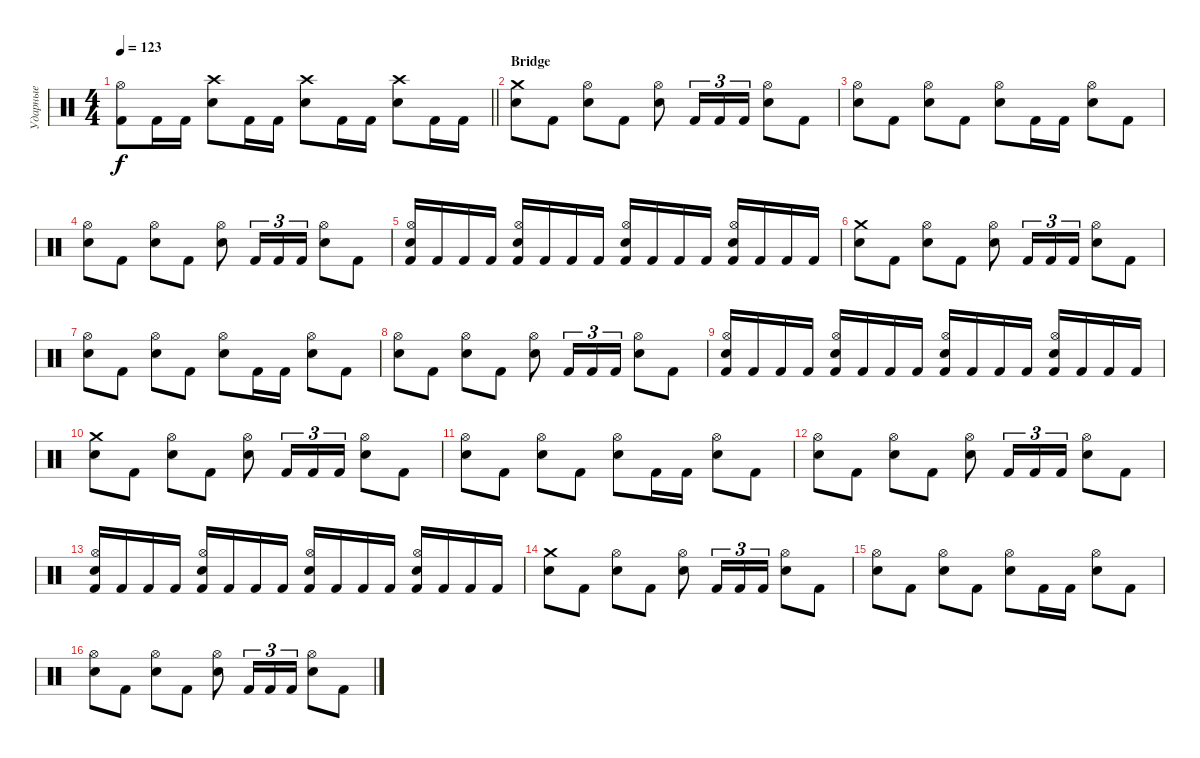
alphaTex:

\track ("Ударные" "Ударные") {instrument percussion}
\staff {score}
\articulation defaults
\ts (4 4)
\tempo 123
\clef neutral
\barLineRight lightlight
\ks c
("Kick (hit) 2" "Hi-Hat (open)").8{dy f} "Kick (hit) 2".16 "Kick (hit) 2".16 ("Crash high (hit)" "Snare (hit) 2").8 "Kick (hit) 2".16 "Kick (hit) 2".16 ("Crash high (hit)" "Snare (hit) 2").8 "Kick (hit) 2".16 "Kick (hit) 2".16 ("Crash high (hit)" "Snare (hit) 2").8 "Kick (hit) 2".16 "Kick (hit) 2".16 |
\section ("" "Bridge")
("Crash medium (hit)" "Snare (hit) 2").8 "Kick (hit) 2".8 ("Snare (hit) 2" "Hi-Hat (open)").8 "Kick (hit) 2".8 ("Snare (hit) 2" "Hi-Hat (open)").8 "Kick (hit) 2".16{tu (3 2)} "Kick (hit) 2".16{tu (3 2)} "Kick (hit) 2".16{tu (3 2)} ("Snare (hit) 2" "Hi-Hat (open)").8 "Kick (hit) 2".8 |
("Snare (hit) 2" "Hi-Hat (open)").8 "Kick (hit) 2".8 ("Snare (hit) 2" "Hi-Hat (open)").8 "Kick (hit) 2".8 ("Snare (hit) 2" "Hi-Hat (open)").8 "Kick (hit) 2".16 "Kick (hit) 2".16 ("Snare (hit) 2" "Hi-Hat (open)").8 "Kick (hit) 2".8 |
("Snare (hit) 2" "Hi-Hat (open)").8 "Kick (hit) 2".8 ("Snare (hit) 2" "Hi-Hat (open)").8 "Kick (hit) 2".8 ("Snare (hit) 2" "Hi-Hat (open)").8 "Kick (hit) 2".16{tu (3 2)} "Kick (hit) 2".16{tu (3 2)} "Kick (hit) 2".16{tu (3 2)} ("Snare (hit) 2" "Hi-Hat (open)").8 "Kick (hit) 2".8 |
("Snare (hit) 2" "Kick (hit) 2" "Hi-Hat (open)").16 "Kick (hit) 2".16 "Kick (hit) 2".16 "Kick (hit) 2".16 ("Snare (hit) 2" "Kick (hit) 2" "Hi-Hat (open)").16 "Kick (hit) 2".16 "Kick (hit) 2".16 "Kick (hit) 2".16 ("Snare (hit) 2" "Kick (hit) 2" "Hi-Hat (open)").16 "Kick (hit) 2".16 "Kick (hit) 2".16 "Kick (hit) 2".16 ("Snare (hit) 2" "Kick (hit) 2" "Hi-Hat (open)").16 "Kick (hit) 2".16 "Kick (hit) 2".16 "Kick (hit) 2".16 |
("Crash medium (hit)" "Snare (hit) 2").8 "Kick (hit) 2".8 ("Snare (hit) 2" "Hi-Hat (open)").8 "Kick (hit) 2".8 ("Snare (hit) 2" "Hi-Hat (open)").8 "Kick (hit) 2".16{tu (3 2)} "Kick (hit) 2".16{tu (3 2)} "Kick (hit) 2".16{tu (3 2)} ("Snare (hit) 2" "Hi-Hat (open)").8 "Kick (hit) 2".8 |
("Snare (hit) 2" "Hi-Hat (open)").8 "Kick (hit) 2".8 ("Snare (hit) 2" "Hi-Hat (open)").8 "Kick (hit) 2".8 ("Snare (hit) 2" "Hi-Hat (open)").8 "Kick (hit) 2".16 "Kick (hit) 2".16 ("Snare (hit) 2" "Hi-Hat (open)").8 "Kick (hit) 2".8 |
("Snare (hit) 2" "Hi-Hat (open)").8 "Kick (hit) 2".8 ("Snare (hit) 2" "Hi-Hat (open)").8 "Kick (hit) 2".8 ("Snare (hit) 2" "Hi-Hat (open)").8 "Kick (hit) 2".16{tu (3 2)} "Kick (hit) 2".16{tu (3 2)} "Kick (hit) 2".16{tu (3 2)} ("Snare (hit) 2" "Hi-Hat (open)").8 "Kick (hit) 2".8 |
("Snare (hit) 2" "Kick (hit) 2" "Hi-Hat (open)").16 "Kick (hit) 2".16 "Kick (hit) 2".16 "Kick (hit) 2".16 ("Snare (hit) 2" "Kick (hit) 2" "Hi-Hat (open)").16 "Kick (hit) 2".16 "Kick (hit) 2".16 "Kick (hit) 2".16 ("Snare (hit) 2" "Kick (hit) 2" "Hi-Hat (open)").16 "Kick (hit) 2".16 "Kick (hit) 2".16 "Kick (hit) 2".16 ("Snare (hit) 2" "Kick (hit) 2" "Hi-Hat (open)").16 "Kick (hit) 2".16 "Kick (hit) 2".16 "Kick (hit) 2".16 |
("Crash medium (hit)" "Snare (hit) 2").8 "Kick (hit) 2".8 ("Snare (hit) 2" "Hi-Hat (open)").8 "Kick (hit) 2".8 ("Snare (hit) 2" "Hi-Hat (open)").8 "Kick (hit) 2".16{tu (3 2)} "Kick (hit) 2".16{tu (3 2)} "Kick (hit) 2".16{tu (3 2)} ("Snare (hit) 2" "Hi-Hat (open)").8 "Kick (hit) 2".8 |
("Snare (hit) 2" "Hi-Hat (open)").8 "Kick (hit) 2".8 ("Snare (hit) 2" "Hi-Hat (open)").8 "Kick (hit) 2".8 ("Snare (hit) 2" "Hi-Hat (open)").8 "Kick (hit) 2".16 "Kick (hit) 2".16 ("Snare (hit) 2" "Hi-Hat (open)").8 "Kick (hit) 2".8 |
("Snare (hit) 2" "Hi-Hat (open)").8 "Kick (hit) 2".8 ("Snare (hit) 2" "Hi-Hat (open)").8 "Kick (hit) 2".8 ("Snare (hit) 2" "Hi-Hat (open)").8 "Kick (hit) 2".16{tu (3 2)} "Kick (hit) 2".16{tu (3 2)} "Kick (hit) 2".16{tu (3 2)} ("Snare (hit) 2" "Hi-Hat (open)").8 "Kick (hit) 2".8 |
("Snare (hit) 2" "Kick (hit) 2" "Hi-Hat (open)").16 "Kick (hit) 2".16 "Kick (hit) 2".16 "Kick (hit) 2".16 ("Snare (hit) 2" "Kick (hit) 2" "Hi-Hat (open)").16 "Kick (hit) 2".16 "Kick (hit) 2".16 "Kick (hit) 2".16 ("Snare (hit) 2" "Kick (hit) 2" "Hi-Hat (open)").16 "Kick (hit) 2".16 "Kick (hit) 2".16 "Kick (hit) 2".16 ("Snare (hit) 2" "Kick (hit) 2" "Hi-Hat (open)").16 "Kick (hit) 2".16 "Kick (hit) 2".16 "Kick (hit) 2".16 |
("Crash medium (hit)" "Snare (hit) 2").8 "Kick (hit) 2".8 ("Snare (hit) 2" "Hi-Hat (open)").8 "Kick (hit) 2".8 ("Snare (hit) 2" "Hi-Hat (open)").8 "Kick (hit) 2".16{tu (3 2)} "Kick (hit) 2".16{tu (3 2)} "Kick (hit) 2".16{tu (3 2)} ("Snare (hit) 2" "Hi-Hat (open)").8 "Kick (hit) 2".8 |
("Snare (hit) 2" "Hi-Hat (open)").8 "Kick (hit) 2".8 ("Snare (hit) 2" "Hi-Hat (open)").8 "Kick (hit) 2".8 ("Snare (hit) 2" "Hi-Hat (open)").8 "Kick (hit) 2".16 "Kick (hit) 2".16 ("Snare (hit) 2" "Hi-Hat (open)").8 "Kick (hit) 2".8 |
("Snare (hit) 2" "Hi-Hat (open)").8 "Kick (hit) 2".8 ("Snare (hit) 2" "Hi-Hat (open)").8 "Kick (hit) 2".8 ("Snare (hit) 2" "Hi-Hat (open)").8 "Kick (hit) 2".16{tu (3 2)} "Kick (hit) 2".16{tu (3 2)} "Kick (hit) 2".16{tu (3 2)} ("Snare (hit) 2" "Hi-Hat (open)").8 "Kick (hit) 2".8
